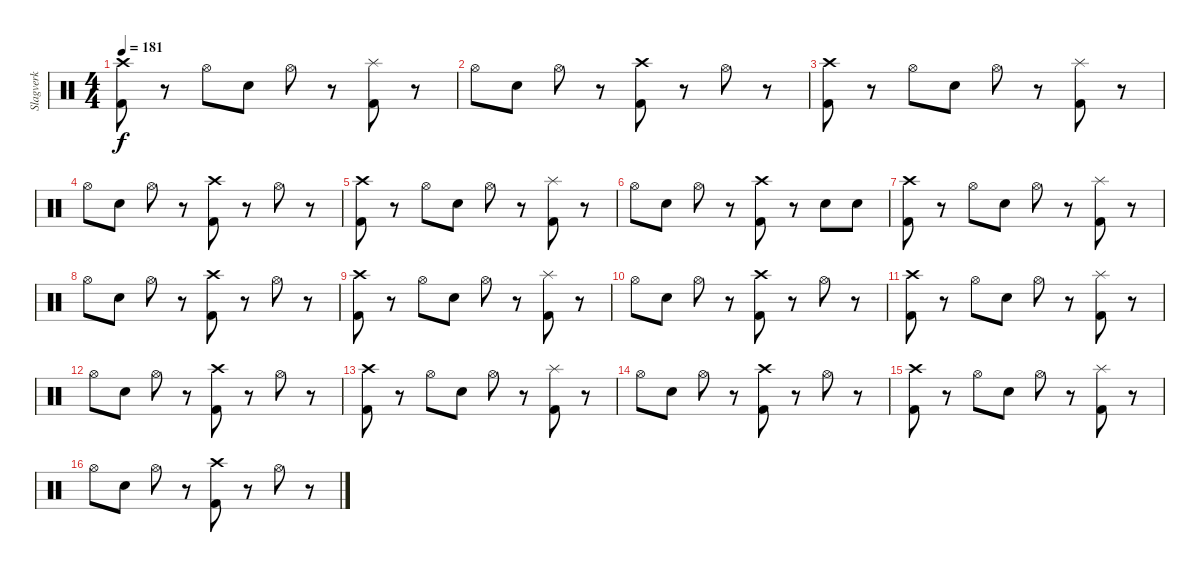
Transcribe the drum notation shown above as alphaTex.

\track ("Slagverk" "Slagverk") {instrument percussion}
\staff {score}
\articulation defaults
\ts (4 4)
\tempo 181
\clef neutral
\ks c
("Crash high (hit)" "Kick (hit) 2").8{dy f} r.8 "Hi-Hat (open)".8 "Electric Snare (hit)".8 "Hi-Hat (open)".8 r.8 ("Splash (hit)" "Kick (hit) 2").8 r.8 |
"Hi-Hat (open)".8 "Electric Snare (hit)".8 "Hi-Hat (open)".8 r.8 ("Crash high (hit)" "Kick (hit) 2").8 r.8 "Hi-Hat (open)".8 r.8 |
("Crash high (hit)" "Kick (hit) 2").8 r.8 "Hi-Hat (open)".8 "Electric Snare (hit)".8 "Hi-Hat (open)".8 r.8 ("Splash (hit)" "Kick (hit) 2").8 r.8 |
"Hi-Hat (open)".8 "Electric Snare (hit)".8 "Hi-Hat (open)".8 r.8 ("Crash high (hit)" "Kick (hit) 2").8 r.8 "Hi-Hat (open)".8 r.8 |
("Crash high (hit)" "Kick (hit) 2").8 r.8 "Hi-Hat (open)".8 "Electric Snare (hit)".8 "Hi-Hat (open)".8 r.8 ("Splash (hit)" "Kick (hit) 2").8 r.8 |
"Hi-Hat (open)".8 "Electric Snare (hit)".8 "Hi-Hat (open)".8 r.8 ("Crash high (hit)" "Kick (hit) 2").8 r.8 "Electric Snare (hit)".8 "Electric Snare (hit)".8 |
("Crash high (hit)" "Kick (hit) 2").8 r.8 "Hi-Hat (open)".8 "Electric Snare (hit)".8 "Hi-Hat (open)".8 r.8 ("Splash (hit)" "Kick (hit) 2").8 r.8 |
"Hi-Hat (open)".8 "Electric Snare (hit)".8 "Hi-Hat (open)".8 r.8 ("Crash high (hit)" "Kick (hit) 2").8 r.8 "Hi-Hat (open)".8 r.8 |
("Crash high (hit)" "Kick (hit) 2").8 r.8 "Hi-Hat (open)".8 "Electric Snare (hit)".8 "Hi-Hat (open)".8 r.8 ("Splash (hit)" "Kick (hit) 2").8 r.8 |
"Hi-Hat (open)".8 "Electric Snare (hit)".8 "Hi-Hat (open)".8 r.8 ("Crash high (hit)" "Kick (hit) 2").8 r.8 "Hi-Hat (open)".8 r.8 |
("Crash high (hit)" "Kick (hit) 2").8 r.8 "Hi-Hat (open)".8 "Electric Snare (hit)".8 "Hi-Hat (open)".8 r.8 ("Splash (hit)" "Kick (hit) 2").8 r.8 |
"Hi-Hat (open)".8 "Electric Snare (hit)".8 "Hi-Hat (open)".8 r.8 ("Crash high (hit)" "Kick (hit) 2").8 r.8 "Hi-Hat (open)".8 r.8 |
("Crash high (hit)" "Kick (hit) 2").8 r.8 "Hi-Hat (open)".8 "Electric Snare (hit)".8 "Hi-Hat (open)".8 r.8 ("Splash (hit)" "Kick (hit) 2").8 r.8 |
"Hi-Hat (open)".8 "Electric Snare (hit)".8 "Hi-Hat (open)".8 r.8 ("Crash high (hit)" "Kick (hit) 2").8 r.8 "Hi-Hat (open)".8 r.8 |
("Crash high (hit)" "Kick (hit) 2").8 r.8 "Hi-Hat (open)".8 "Electric Snare (hit)".8 "Hi-Hat (open)".8 r.8 ("Splash (hit)" "Kick (hit) 2").8 r.8 |
"Hi-Hat (open)".8 "Electric Snare (hit)".8 "Hi-Hat (open)".8 r.8 ("Crash high (hit)" "Kick (hit) 2").8 r.8 "Hi-Hat (open)".8 r.8
